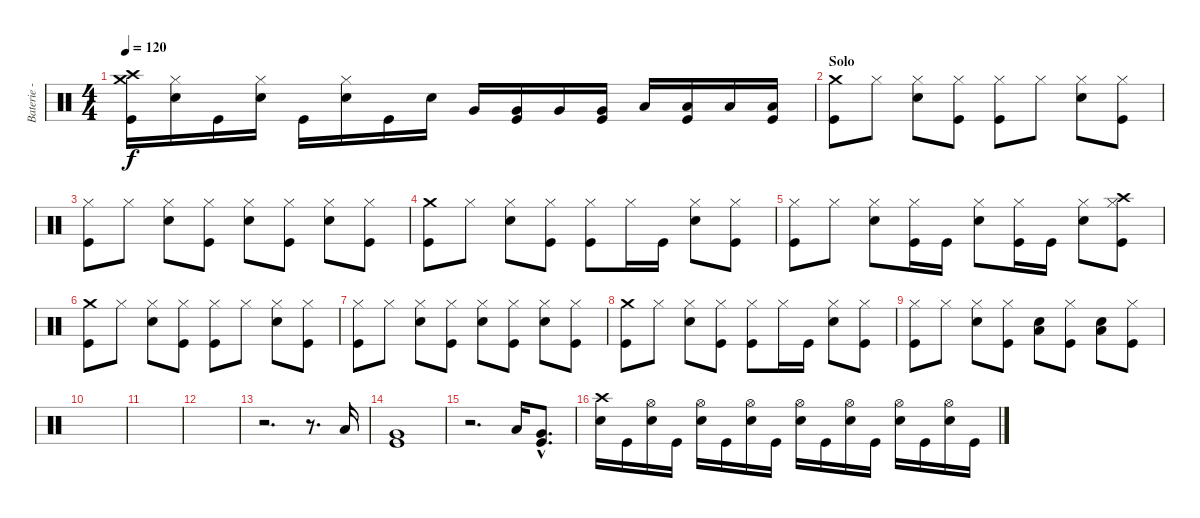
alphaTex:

\track ("Baterie - Nounours" "Baterie - ") {instrument percussion}
\staff {score}
\articulation defaults
\ts (4 4)
\tempo 120
\clef neutral
\ks c
("Crash medium (hit)" "Crash high (hit)" "Kick (hit)").16{dy f} ("Hi-Hat (closed)" "Electric Snare (hit)").16 "Kick (hit)".16 ("Hi-Hat (closed)" "Electric Snare (hit)").16 "Kick (hit)".16 ("Hi-Hat (closed)" "Electric Snare (hit)").16 "Kick (hit)".16 "Electric Snare (hit)".16 "Very Low Tom (hit)".16 ("Very Low Tom (hit)" "Kick (hit)").16 "Very Low Tom (hit)".16 ("Very Low Tom (hit)" "Kick (hit)").16 "Low Floor Tom (hit)".16 ("Low Floor Tom (hit)" "Kick (hit)").16 "Low Floor Tom (hit)".16 ("Low Floor Tom (hit)" "Kick (hit)").16 |
\section ("" "Solo")
("Crash medium (hit)" "Kick (hit)").8 "Hi-Hat (closed)".8 ("Hi-Hat (closed)" "Electric Snare (hit)").8 ("Hi-Hat (closed)" "Kick (hit)").8 ("Hi-Hat (closed)" "Kick (hit)").8 "Hi-Hat (closed)".8 ("Hi-Hat (closed)" "Electric Snare (hit)").8 ("Hi-Hat (closed)" "Kick (hit)").8 |
("Hi-Hat (closed)" "Kick (hit)").8 "Hi-Hat (closed)".8 ("Hi-Hat (closed)" "Electric Snare (hit)").8 ("Hi-Hat (closed)" "Kick (hit)").8 ("Hi-Hat (closed)" "Electric Snare (hit)").8 ("Hi-Hat (closed)" "Kick (hit)").8 ("Hi-Hat (closed)" "Electric Snare (hit)").8 ("Hi-Hat (closed)" "Kick (hit)").8 |
("Crash medium (hit)" "Kick (hit)").8 "Hi-Hat (closed)".8 ("Hi-Hat (closed)" "Electric Snare (hit)").8 ("Hi-Hat (closed)" "Kick (hit)").8 ("Hi-Hat (closed)" "Kick (hit)").8 "Hi-Hat (closed)".16 "Kick (hit)".16 ("Hi-Hat (closed)" "Electric Snare (hit)").8 ("Hi-Hat (closed)" "Kick (hit)").8 |
("Hi-Hat (closed)" "Kick (hit)").8 "Hi-Hat (closed)".8 ("Hi-Hat (closed)" "Electric Snare (hit)").8 ("Hi-Hat (closed)" "Kick (hit)").16 "Kick (hit)".16 ("Hi-Hat (closed)" "Electric Snare (hit)").8 ("Hi-Hat (closed)" "Kick (hit)").16 "Kick (hit)".16 ("Hi-Hat (closed)" "Electric Snare (hit)").8 ("Crash high (hit)" "Hi-Hat (closed)" "Kick (hit)").8 |
("Crash medium (hit)" "Kick (hit)").8 "Hi-Hat (closed)".8 ("Hi-Hat (closed)" "Electric Snare (hit)").8 ("Hi-Hat (closed)" "Kick (hit)").8 ("Hi-Hat (closed)" "Kick (hit)").8 "Hi-Hat (closed)".8 ("Hi-Hat (closed)" "Electric Snare (hit)").8 ("Hi-Hat (closed)" "Kick (hit)").8 |
("Hi-Hat (closed)" "Kick (hit)").8 "Hi-Hat (closed)".8 ("Hi-Hat (closed)" "Electric Snare (hit)").8 ("Hi-Hat (closed)" "Kick (hit)").8 ("Hi-Hat (closed)" "Electric Snare (hit)").8 ("Hi-Hat (closed)" "Kick (hit)").8 ("Hi-Hat (closed)" "Electric Snare (hit)").8 ("Hi-Hat (closed)" "Kick (hit)").8 |
("Crash medium (hit)" "Kick (hit)").8 "Hi-Hat (closed)".8 ("Hi-Hat (closed)" "Electric Snare (hit)").8 ("Hi-Hat (closed)" "Kick (hit)").8 ("Hi-Hat (closed)" "Kick (hit)").8 "Hi-Hat (closed)".16 "Kick (hit)".16 ("Hi-Hat (closed)" "Electric Snare (hit)").8 ("Hi-Hat (closed)" "Kick (hit)").8 |
("Hi-Hat (closed)" "Kick (hit)").8 "Hi-Hat (closed)".8 ("Hi-Hat (closed)" "Electric Snare (hit)").8 ("Hi-Hat (closed)" "Kick (hit)").8 ("Electric Snare (hit)" "Low Floor Tom (hit)").8 ("Hi-Hat (closed)" "Kick (hit)").8 ("Electric Snare (hit)" "Low Floor Tom (hit)").8 ("Hi-Hat (closed)" "Kick (hit)").8 |
|
|
|
r.2{d} r.8{d} "Low Floor Tom (hit)".16 |
("Very Low Tom (hit)" "Kick (hit)").1 |
r.2{d} "Low Floor Tom (hit)".16 ("Very Low Tom (hit)"{hac} "Kick (hit)"{hac}).8{d} |
("Crash high (hit)" "Electric Snare (hit)").16 "Kick (hit)".16 ("Hi-Hat (open)" "Electric Snare (hit)").16 "Kick (hit)".16 ("Hi-Hat (open)" "Electric Snare (hit)").16 "Kick (hit)".16 ("Hi-Hat (open)" "Electric Snare (hit)").16 "Kick (hit)".16 ("Hi-Hat (open)" "Electric Snare (hit)").16 "Kick (hit)".16 ("Hi-Hat (open)" "Electric Snare (hit)").16 "Kick (hit)".16 ("Hi-Hat (open)" "Electric Snare (hit)").16 "Kick (hit)".16 ("Hi-Hat (open)" "Electric Snare (hit)").16 "Kick (hit)".16
